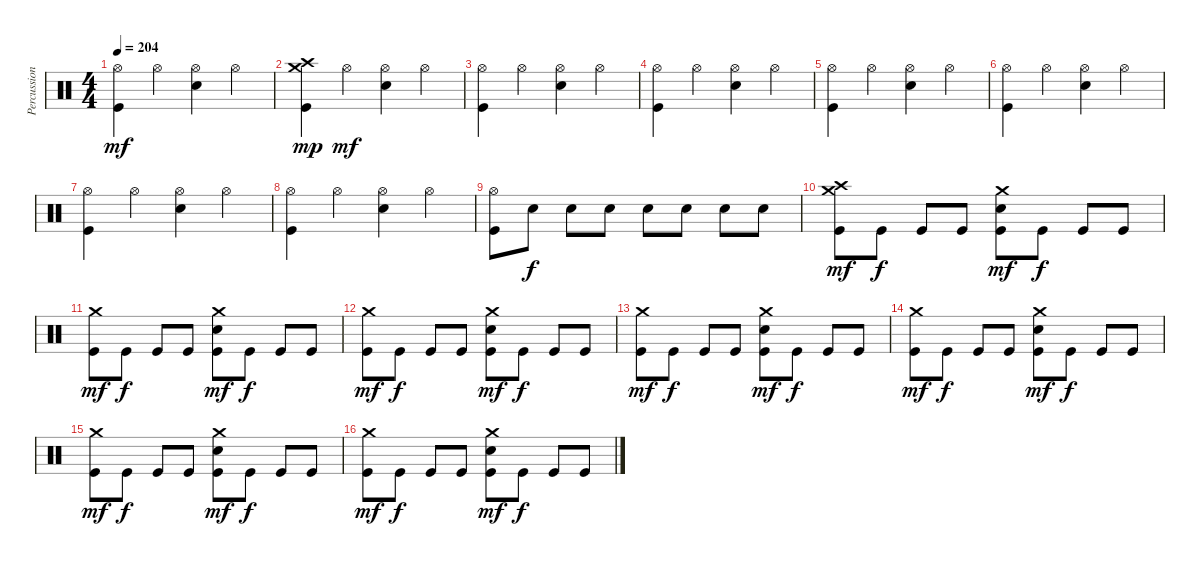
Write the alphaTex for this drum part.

\track ("Percussions" "Percussion") {instrument percussion}
\staff {score}
\articulation defaults
\ts (4 4)
\tempo 204
\clef neutral
\ks c
("Kick (hit)" "Hi-Hat (open)").4{dy mf} "Hi-Hat (open)".4 ("Electric Snare (hit)" "Hi-Hat (open)").4 "Hi-Hat (open)".4 |
("Kick (hit)" "Crash high (hit)" "Crash medium (hit)").4{dy mp} "Hi-Hat (open)".4{dy mf} ("Electric Snare (hit)" "Hi-Hat (open)").4 "Hi-Hat (open)".4 |
("Kick (hit)" "Hi-Hat (open)").4 "Hi-Hat (open)".4 ("Electric Snare (hit)" "Hi-Hat (open)").4 "Hi-Hat (open)".4 |
("Kick (hit)" "Hi-Hat (open)").4 "Hi-Hat (open)".4 ("Electric Snare (hit)" "Hi-Hat (open)").4 "Hi-Hat (open)".4 |
("Kick (hit)" "Hi-Hat (open)").4 "Hi-Hat (open)".4 ("Electric Snare (hit)" "Hi-Hat (open)").4 "Hi-Hat (open)".4 |
("Kick (hit)" "Hi-Hat (open)").4 "Hi-Hat (open)".4 ("Electric Snare (hit)" "Hi-Hat (open)").4 "Hi-Hat (open)".4 |
("Kick (hit)" "Hi-Hat (open)").4 "Hi-Hat (open)".4 ("Electric Snare (hit)" "Hi-Hat (open)").4 "Hi-Hat (open)".4 |
("Kick (hit)" "Hi-Hat (open)").4 "Hi-Hat (open)".4 ("Electric Snare (hit)" "Hi-Hat (open)").4 "Hi-Hat (open)".4 |
("Kick (hit)" "Hi-Hat (open)").8 "Electric Snare (hit)".8{dy f} "Electric Snare (hit)".8 "Electric Snare (hit)".8 "Electric Snare (hit)".8 "Electric Snare (hit)".8 "Electric Snare (hit)".8 "Electric Snare (hit)".8 |
("Kick (hit)" "Crash medium (hit)" "Crash high (hit)").8{dy mf} "Kick (hit)".8{dy f} "Kick (hit)".8 "Kick (hit)".8 ("Kick (hit)" "Electric Snare (hit)" "Crash medium (hit)").8{dy mf} "Kick (hit)".8{dy f} "Kick (hit)".8 "Kick (hit)".8 |
("Kick (hit)" "Crash medium (hit)").8{dy mf} "Kick (hit)".8{dy f} "Kick (hit)".8 "Kick (hit)".8 ("Kick (hit)" "Electric Snare (hit)" "Crash medium (hit)").8{dy mf} "Kick (hit)".8{dy f} "Kick (hit)".8 "Kick (hit)".8 |
("Kick (hit)" "Crash medium (hit)").8{dy mf} "Kick (hit)".8{dy f} "Kick (hit)".8 "Kick (hit)".8 ("Kick (hit)" "Electric Snare (hit)" "Crash medium (hit)").8{dy mf} "Kick (hit)".8{dy f} "Kick (hit)".8 "Kick (hit)".8 |
("Kick (hit)" "Crash medium (hit)").8{dy mf} "Kick (hit)".8{dy f} "Kick (hit)".8 "Kick (hit)".8 ("Kick (hit)" "Electric Snare (hit)" "Crash medium (hit)").8{dy mf} "Kick (hit)".8{dy f} "Kick (hit)".8 "Kick (hit)".8 |
("Kick (hit)" "Crash medium (hit)").8{dy mf} "Kick (hit)".8{dy f} "Kick (hit)".8 "Kick (hit)".8 ("Kick (hit)" "Electric Snare (hit)" "Crash medium (hit)").8{dy mf} "Kick (hit)".8{dy f} "Kick (hit)".8 "Kick (hit)".8 |
("Kick (hit)" "Crash medium (hit)").8{dy mf} "Kick (hit)".8{dy f} "Kick (hit)".8 "Kick (hit)".8 ("Kick (hit)" "Electric Snare (hit)" "Crash medium (hit)").8{dy mf} "Kick (hit)".8{dy f} "Kick (hit)".8 "Kick (hit)".8 |
("Kick (hit)" "Crash medium (hit)").8{dy mf} "Kick (hit)".8{dy f} "Kick (hit)".8 "Kick (hit)".8 ("Kick (hit)" "Electric Snare (hit)" "Crash medium (hit)").8{dy mf} "Kick (hit)".8{dy f} "Kick (hit)".8 "Kick (hit)".8
